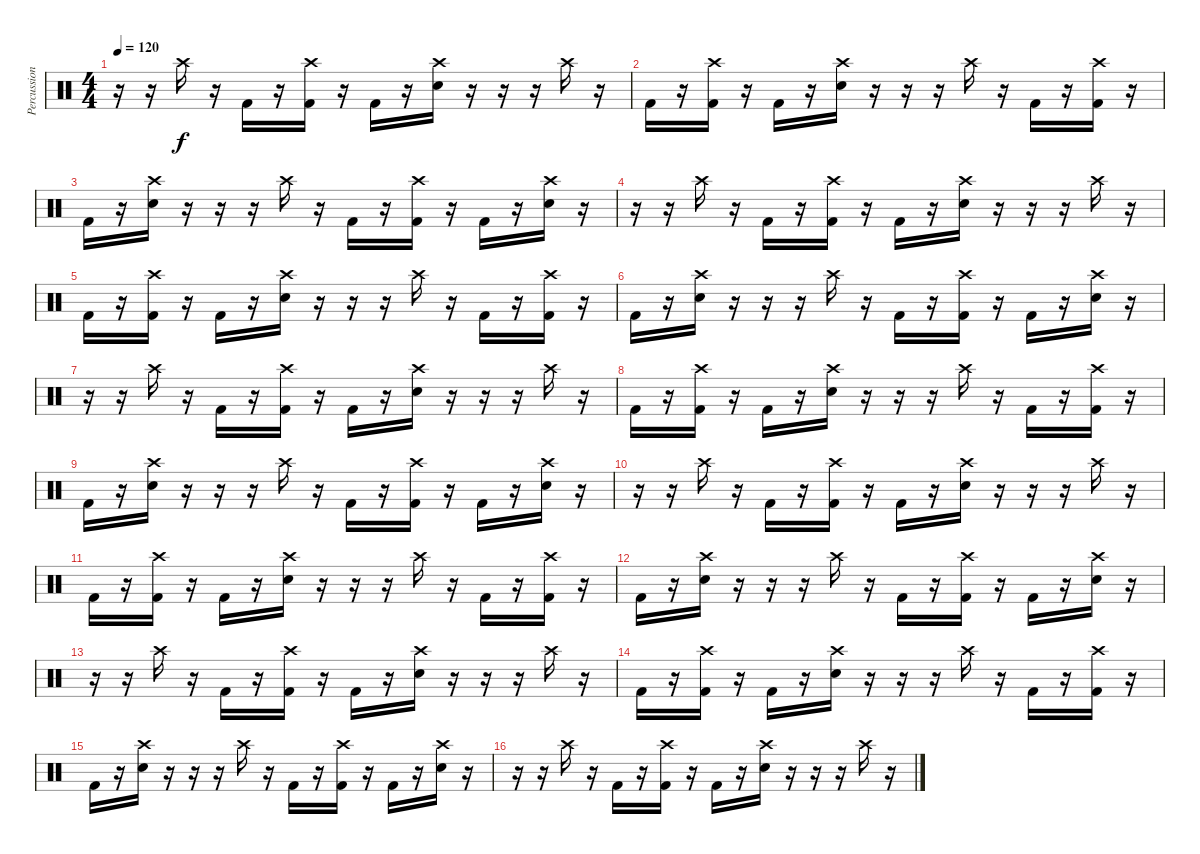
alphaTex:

\track ("Percussion" "Percussion") {instrument percussion}
\staff {score}
\articulation defaults
\ts (4 4)
\tempo 120
\clef neutral
\ks c
r.16{dy f} r.16 "Crash high (hit)".16 r.16 "Kick (hit) 2".16 r.16 ("Crash high (hit)" "Kick (hit) 2").16 r.16 "Kick (hit) 2".16 r.16 ("Crash high (hit)" "Electric Snare (hit)").16 r.16 r.16 r.16 "Crash high (hit)".16 r.16 |
"Kick (hit) 2".16 r.16 ("Crash high (hit)" "Kick (hit) 2").16 r.16 "Kick (hit) 2".16 r.16 ("Crash high (hit)" "Electric Snare (hit)").16 r.16 r.16 r.16 "Crash high (hit)".16 r.16 "Kick (hit) 2".16 r.16 ("Crash high (hit)" "Kick (hit) 2").16 r.16 |
"Kick (hit) 2".16 r.16 ("Crash high (hit)" "Electric Snare (hit)").16 r.16 r.16 r.16 "Crash high (hit)".16 r.16 "Kick (hit) 2".16 r.16 ("Crash high (hit)" "Kick (hit) 2").16 r.16 "Kick (hit) 2".16 r.16 ("Crash high (hit)" "Electric Snare (hit)").16 r.16 |
r.16 r.16 "Crash high (hit)".16 r.16 "Kick (hit) 2".16 r.16 ("Crash high (hit)" "Kick (hit) 2").16 r.16 "Kick (hit) 2".16 r.16 ("Crash high (hit)" "Electric Snare (hit)").16 r.16 r.16 r.16 "Crash high (hit)".16 r.16 |
"Kick (hit) 2".16 r.16 ("Crash high (hit)" "Kick (hit) 2").16 r.16 "Kick (hit) 2".16 r.16 ("Crash high (hit)" "Electric Snare (hit)").16 r.16 r.16 r.16 "Crash high (hit)".16 r.16 "Kick (hit) 2".16 r.16 ("Crash high (hit)" "Kick (hit) 2").16 r.16 |
"Kick (hit) 2".16 r.16 ("Crash high (hit)" "Electric Snare (hit)").16 r.16 r.16 r.16 "Crash high (hit)".16 r.16 "Kick (hit) 2".16 r.16 ("Crash high (hit)" "Kick (hit) 2").16 r.16 "Kick (hit) 2".16 r.16 ("Crash high (hit)" "Electric Snare (hit)").16 r.16 |
r.16 r.16 "Crash high (hit)".16 r.16 "Kick (hit) 2".16 r.16 ("Crash high (hit)" "Kick (hit) 2").16 r.16 "Kick (hit) 2".16 r.16 ("Crash high (hit)" "Electric Snare (hit)").16 r.16 r.16 r.16 "Crash high (hit)".16 r.16 |
"Kick (hit) 2".16 r.16 ("Crash high (hit)" "Kick (hit) 2").16 r.16 "Kick (hit) 2".16 r.16 ("Crash high (hit)" "Electric Snare (hit)").16 r.16 r.16 r.16 "Crash high (hit)".16 r.16 "Kick (hit) 2".16 r.16 ("Crash high (hit)" "Kick (hit) 2").16 r.16 |
"Kick (hit) 2".16 r.16 ("Crash high (hit)" "Electric Snare (hit)").16 r.16 r.16 r.16 "Crash high (hit)".16 r.16 "Kick (hit) 2".16 r.16 ("Crash high (hit)" "Kick (hit) 2").16 r.16 "Kick (hit) 2".16 r.16 ("Crash high (hit)" "Electric Snare (hit)").16 r.16 |
r.16 r.16 "Crash high (hit)".16 r.16 "Kick (hit) 2".16 r.16 ("Crash high (hit)" "Kick (hit) 2").16 r.16 "Kick (hit) 2".16 r.16 ("Crash high (hit)" "Electric Snare (hit)").16 r.16 r.16 r.16 "Crash high (hit)".16 r.16 |
"Kick (hit) 2".16 r.16 ("Crash high (hit)" "Kick (hit) 2").16 r.16 "Kick (hit) 2".16 r.16 ("Crash high (hit)" "Electric Snare (hit)").16 r.16 r.16 r.16 "Crash high (hit)".16 r.16 "Kick (hit) 2".16 r.16 ("Crash high (hit)" "Kick (hit) 2").16 r.16 |
"Kick (hit) 2".16 r.16 ("Crash high (hit)" "Electric Snare (hit)").16 r.16 r.16 r.16 "Crash high (hit)".16 r.16 "Kick (hit) 2".16 r.16 ("Crash high (hit)" "Kick (hit) 2").16 r.16 "Kick (hit) 2".16 r.16 ("Crash high (hit)" "Electric Snare (hit)").16 r.16 |
r.16 r.16 "Crash high (hit)".16 r.16 "Kick (hit) 2".16 r.16 ("Crash high (hit)" "Kick (hit) 2").16 r.16 "Kick (hit) 2".16 r.16 ("Crash high (hit)" "Electric Snare (hit)").16 r.16 r.16 r.16 "Crash high (hit)".16 r.16 |
"Kick (hit) 2".16 r.16 ("Crash high (hit)" "Kick (hit) 2").16 r.16 "Kick (hit) 2".16 r.16 ("Crash high (hit)" "Electric Snare (hit)").16 r.16 r.16 r.16 "Crash high (hit)".16 r.16 "Kick (hit) 2".16 r.16 ("Crash high (hit)" "Kick (hit) 2").16 r.16 |
"Kick (hit) 2".16 r.16 ("Crash high (hit)" "Electric Snare (hit)").16 r.16 r.16 r.16 "Crash high (hit)".16 r.16 "Kick (hit) 2".16 r.16 ("Crash high (hit)" "Kick (hit) 2").16 r.16 "Kick (hit) 2".16 r.16 ("Crash high (hit)" "Electric Snare (hit)").16 r.16 |
r.16 r.16 "Crash high (hit)".16 r.16 "Kick (hit) 2".16 r.16 ("Crash high (hit)" "Kick (hit) 2").16 r.16 "Kick (hit) 2".16 r.16 ("Crash high (hit)" "Electric Snare (hit)").16 r.16 r.16 r.16 "Crash high (hit)".16 r.16
